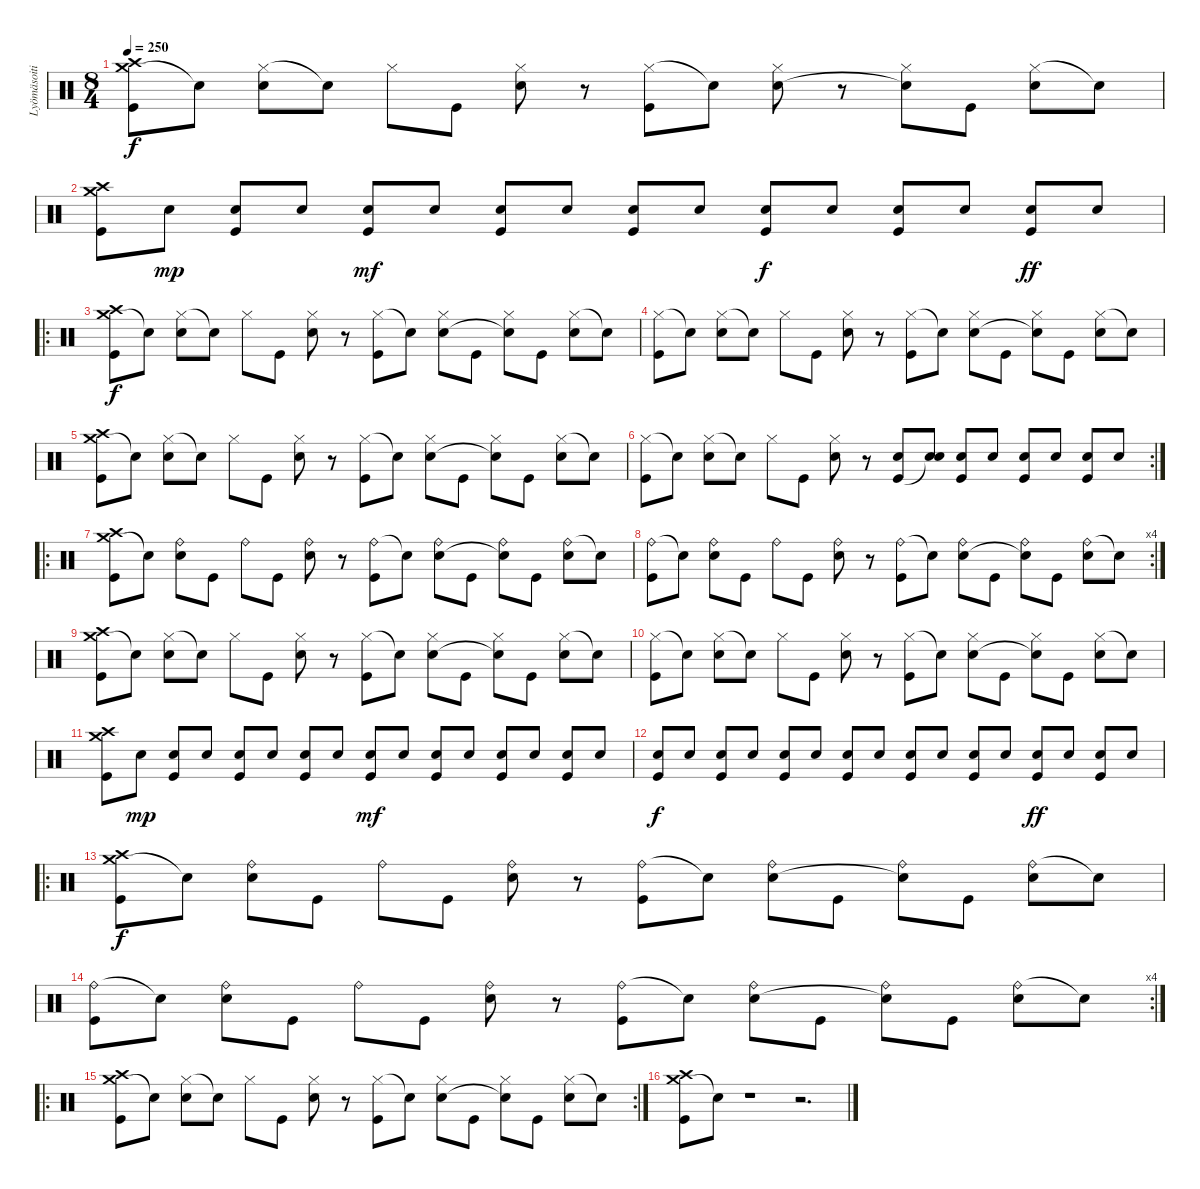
\track ("Lyömäsoitin" "Lyömäsoiti") {instrument percussion}
\staff {score}
\articulation defaults
\ts (8 4)
\tempo 250
\clef neutral
\ks c
("Crash medium (hit)" "Crash high (hit)" "Kick (hit)").8{dy f} "Snare (hit)"{t}.8 ("Hi-Hat (closed)" "Snare (hit) 2").8 "Snare (hit)"{t}.8 "Hi-Hat (closed)".8 "Kick (hit)".8 ("Hi-Hat (closed)" "Snare (hit) 2").8 r.8 ("Hi-Hat (closed)" "Kick (hit)").8 "Snare (hit)"{t}.8 ("Hi-Hat (closed)" "Snare (hit) 2").8 r.8 ("Hi-Hat (closed)" "Snare (hit)"{t}).8 "Kick (hit)".8 ("Hi-Hat (closed)" "Snare (hit) 2").8 "Snare (hit)"{t}.8 |
("Crash medium (hit)" "Crash high (hit)" "Kick (hit)").8 "Snare (hit) 2".8{dy mp} ("Snare (hit) 2" "Kick (hit)").8 "Snare (hit) 2".8 ("Snare (hit) 2" "Kick (hit)").8{dy mf} "Snare (hit) 2".8 ("Snare (hit) 2" "Kick (hit)").8 "Snare (hit) 2".8 ("Snare (hit) 2" "Kick (hit)").8 "Snare (hit) 2".8 ("Snare (hit) 2" "Kick (hit)").8{dy f} "Snare (hit) 2".8 ("Snare (hit) 2" "Kick (hit)").8 "Snare (hit) 2".8 ("Snare (hit) 2" "Kick (hit)").8{dy ff} "Snare (hit) 2".8 |
\ro
("Crash medium (hit)" "Crash high (hit)" "Kick (hit)").8{dy f} "Snare (hit)"{t}.8 ("Hi-Hat (closed)" "Snare (hit) 2").8 "Snare (hit)"{t}.8 "Hi-Hat (closed)".8 "Kick (hit)".8 ("Hi-Hat (closed)" "Snare (hit) 2").8 r.8 ("Hi-Hat (closed)" "Kick (hit)").8 "Snare (hit)"{t}.8 ("Hi-Hat (closed)" "Snare (hit) 2").8 "Kick (hit)".8 ("Hi-Hat (closed)" "Snare (hit)"{t}).8 "Kick (hit)".8 ("Hi-Hat (closed)" "Snare (hit) 2").8 "Snare (hit)"{t}.8 |
("Hi-Hat (closed)" "Kick (hit)").8 "Snare (hit)"{t}.8 ("Hi-Hat (closed)" "Snare (hit) 2").8 "Snare (hit)"{t}.8 "Hi-Hat (closed)".8 "Kick (hit)".8 ("Hi-Hat (closed)" "Snare (hit) 2").8 r.8 ("Hi-Hat (closed)" "Kick (hit)").8 "Snare (hit)"{t}.8 ("Hi-Hat (closed)" "Snare (hit) 2").8 "Kick (hit)".8 ("Hi-Hat (closed)" "Snare (hit)"{t}).8 "Kick (hit)".8 ("Hi-Hat (closed)" "Snare (hit) 2").8 "Snare (hit)"{t}.8 |
("Crash medium (hit)" "Crash high (hit)" "Kick (hit)").8 "Snare (hit)"{t}.8 ("Hi-Hat (closed)" "Snare (hit) 2").8 "Snare (hit)"{t}.8 "Hi-Hat (closed)".8 "Kick (hit)".8 ("Hi-Hat (closed)" "Snare (hit) 2").8 r.8 ("Hi-Hat (closed)" "Kick (hit)").8 "Snare (hit)"{t}.8 ("Hi-Hat (closed)" "Snare (hit) 2").8 "Kick (hit)".8 ("Hi-Hat (closed)" "Snare (hit)"{t}).8 "Kick (hit)".8 ("Hi-Hat (closed)" "Snare (hit) 2").8 "Snare (hit)"{t}.8 |
\rc 2
("Hi-Hat (closed)" "Kick (hit)").8 "Snare (hit)"{t}.8 ("Hi-Hat (closed)" "Snare (hit) 2").8 "Snare (hit)"{t}.8 "Hi-Hat (closed)".8 "Kick (hit)".8 ("Hi-Hat (closed)" "Snare (hit) 2").8 r.8 ("Snare (hit) 2" "Kick (hit)").8 ("Snare (hit) 2" "Snare (hit)"{t}).8 ("Snare (hit) 2" "Kick (hit)").8 "Snare (hit) 2".8 ("Snare (hit) 2" "Kick (hit)").8 "Snare (hit) 2".8 ("Snare (hit) 2" "Kick (hit)").8 "Snare (hit) 2".8 |
\ro
("Crash medium (hit)" "Crash high (hit)" "Kick (hit)").8 "Snare (hit)"{t}.8 ("Ride (bell)" "Snare (hit) 2").8 "Kick (hit)".8 "Ride (bell)".8 "Kick (hit)".8 ("Ride (bell)" "Snare (hit) 2").8 r.8 ("Ride (bell)" "Kick (hit)").8 "Snare (hit)"{t}.8 ("Ride (bell)" "Snare (hit) 2").8 "Kick (hit)".8 ("Ride (bell)" "Snare (hit)"{t}).8 "Kick (hit)".8 ("Ride (bell)" "Snare (hit) 2").8 "Snare (hit)"{t}.8 |
\rc 4
("Ride (bell)" "Kick (hit)").8 "Snare (hit)"{t}.8 ("Ride (bell)" "Snare (hit) 2").8 "Kick (hit)".8 "Ride (bell)".8 "Kick (hit)".8 ("Ride (bell)" "Snare (hit) 2").8 r.8 ("Ride (bell)" "Kick (hit)").8 "Snare (hit)"{t}.8 ("Ride (bell)" "Snare (hit) 2").8 "Kick (hit)".8 ("Ride (bell)" "Snare (hit)"{t}).8 "Kick (hit)".8 ("Ride (bell)" "Snare (hit) 2").8 "Snare (hit)"{t}.8 |
("Crash medium (hit)" "Crash high (hit)" "Kick (hit)").8 "Snare (hit)"{t}.8 ("Hi-Hat (closed)" "Snare (hit) 2").8 "Snare (hit)"{t}.8 "Hi-Hat (closed)".8 "Kick (hit)".8 ("Hi-Hat (closed)" "Snare (hit) 2").8 r.8 ("Hi-Hat (closed)" "Kick (hit)").8 "Snare (hit)"{t}.8 ("Hi-Hat (closed)" "Snare (hit) 2").8 "Kick (hit)".8 ("Hi-Hat (closed)" "Snare (hit)"{t}).8 "Kick (hit)".8 ("Hi-Hat (closed)" "Snare (hit) 2").8 "Snare (hit)"{t}.8 |
("Hi-Hat (closed)" "Kick (hit)").8 "Snare (hit)"{t}.8 ("Hi-Hat (closed)" "Snare (hit) 2").8 "Snare (hit)"{t}.8 "Hi-Hat (closed)".8 "Kick (hit)".8 ("Hi-Hat (closed)" "Snare (hit) 2").8 r.8 ("Hi-Hat (closed)" "Kick (hit)").8 "Snare (hit)"{t}.8 ("Hi-Hat (closed)" "Snare (hit) 2").8 "Kick (hit)".8 ("Hi-Hat (closed)" "Snare (hit)"{t}).8 "Kick (hit)".8 ("Hi-Hat (closed)" "Snare (hit) 2").8 "Snare (hit)"{t}.8 |
("Crash medium (hit)" "Crash high (hit)" "Kick (hit)").8 "Snare (hit) 2".8{dy mp} ("Snare (hit) 2" "Kick (hit)").8 "Snare (hit) 2".8 ("Snare (hit) 2" "Kick (hit)").8 "Snare (hit) 2".8 ("Snare (hit) 2" "Kick (hit)").8 "Snare (hit) 2".8 ("Snare (hit) 2" "Kick (hit)").8{dy mf} "Snare (hit) 2".8 ("Snare (hit) 2" "Kick (hit)").8 "Snare (hit) 2".8 ("Snare (hit) 2" "Kick (hit)").8 "Snare (hit) 2".8 ("Snare (hit) 2" "Kick (hit)").8 "Snare (hit) 2".8 |
("Snare (hit) 2" "Kick (hit)").8{dy f} "Snare (hit) 2".8 ("Snare (hit) 2" "Kick (hit)").8 "Snare (hit) 2".8 ("Snare (hit) 2" "Kick (hit)").8 "Snare (hit) 2".8 ("Snare (hit) 2" "Kick (hit)").8 "Snare (hit) 2".8 ("Snare (hit) 2" "Kick (hit)").8 "Snare (hit) 2".8 ("Snare (hit) 2" "Kick (hit)").8 "Snare (hit) 2".8 ("Snare (hit) 2" "Kick (hit)").8{dy ff} "Snare (hit) 2".8 ("Snare (hit) 2" "Kick (hit)").8 "Snare (hit) 2".8 |
\ro
("Crash medium (hit)" "Crash high (hit)" "Kick (hit)").8{dy f} "Snare (hit)"{t}.8 ("Ride (bell)" "Snare (hit) 2").8 "Kick (hit)".8 "Ride (bell)".8 "Kick (hit)".8 ("Ride (bell)" "Snare (hit) 2").8 r.8 ("Ride (bell)" "Kick (hit)").8 "Snare (hit)"{t}.8 ("Ride (bell)" "Snare (hit) 2").8 "Kick (hit)".8 ("Ride (bell)" "Snare (hit)"{t}).8 "Kick (hit)".8 ("Ride (bell)" "Snare (hit) 2").8 "Snare (hit)"{t}.8 |
\rc 4
("Ride (bell)" "Kick (hit)").8 "Snare (hit)"{t}.8 ("Ride (bell)" "Snare (hit) 2").8 "Kick (hit)".8 "Ride (bell)".8 "Kick (hit)".8 ("Ride (bell)" "Snare (hit) 2").8 r.8 ("Ride (bell)" "Kick (hit)").8 "Snare (hit)"{t}.8 ("Ride (bell)" "Snare (hit) 2").8 "Kick (hit)".8 ("Ride (bell)" "Snare (hit)"{t}).8 "Kick (hit)".8 ("Ride (bell)" "Snare (hit) 2").8 "Snare (hit)"{t}.8 |
\ro
\rc 2
("Crash medium (hit)" "Crash high (hit)" "Kick (hit)").8 "Snare (hit)"{t}.8 ("Hi-Hat (closed)" "Snare (hit) 2").8 "Snare (hit)"{t}.8 "Hi-Hat (closed)".8 "Kick (hit)".8 ("Hi-Hat (closed)" "Snare (hit) 2").8 r.8 ("Hi-Hat (closed)" "Kick (hit)").8 "Snare (hit)"{t}.8 ("Hi-Hat (closed)" "Snare (hit) 2").8 "Kick (hit)".8 ("Hi-Hat (closed)" "Snare (hit)"{t}).8 "Kick (hit)".8 ("Hi-Hat (closed)" "Snare (hit) 2").8 "Snare (hit)"{t}.8 |
("Crash medium (hit)" "Crash high (hit)" "Kick (hit)").8 "Snare (hit)"{t}.8 r.1 r.2{d}
